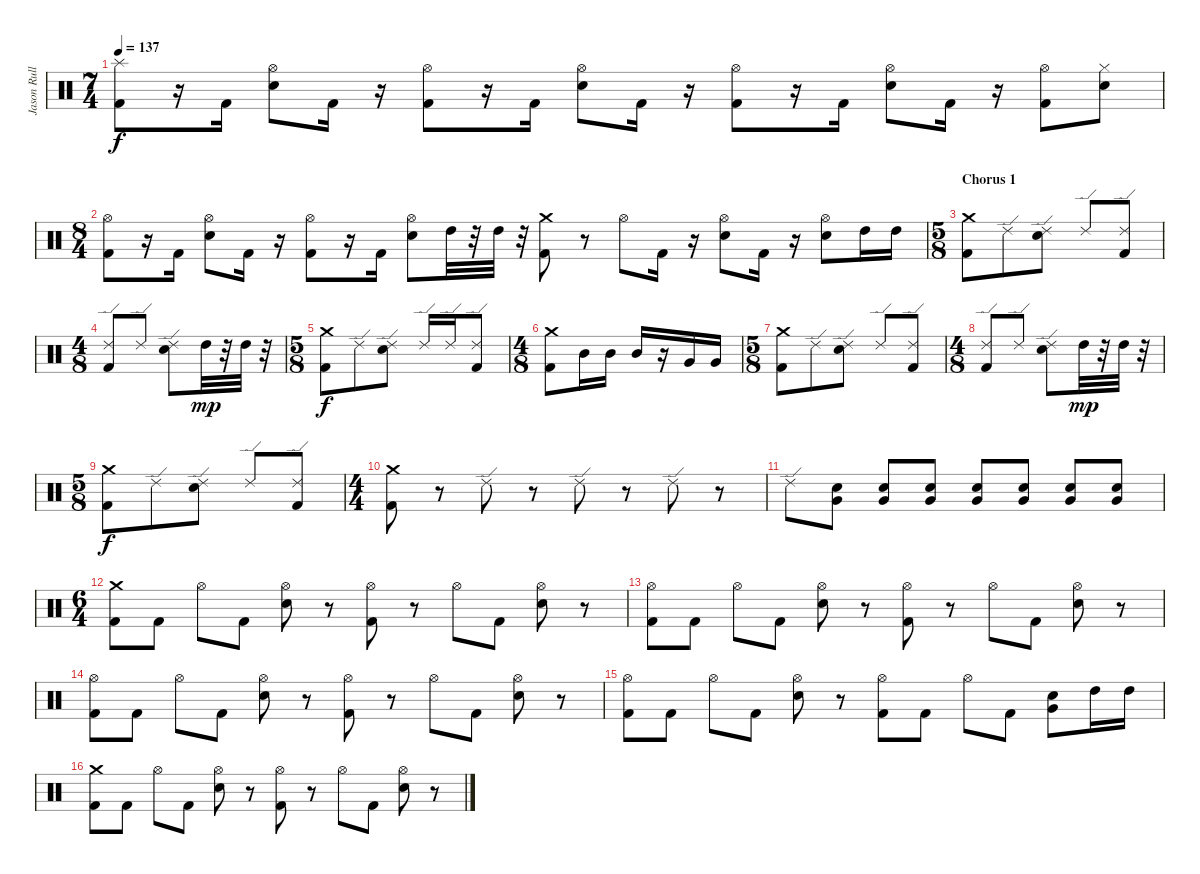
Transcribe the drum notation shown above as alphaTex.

\track ("Jason Rullo" "Jason Rull") {instrument percussion}
\staff {score}
\articulation defaults
\ts (7 4)
\tempo 137
\clef neutral
\ks c
("Splash (hit)" "Kick (hit) 2").8{dy f} r.16 "Kick (hit) 2".16 ("Hi-Hat (open)" "Electric Snare (hit)").8 "Kick (hit) 2".16 r.16 ("Hi-Hat (open)" "Kick (hit) 2").8 r.16 "Kick (hit) 2".16 ("Hi-Hat (open)" "Electric Snare (hit)").8 "Kick (hit) 2".16 r.16 ("Hi-Hat (open)" "Kick (hit) 2").8 r.16 "Kick (hit) 2".16 ("Hi-Hat (open)" "Electric Snare (hit)").8 "Kick (hit) 2".16 r.16 ("Hi-Hat (open)" "Kick (hit) 2").8 ("Hi-Hat (closed)" "Electric Snare (hit)").8 |
\ts (8 4)
("Hi-Hat (open)" "Kick (hit) 2").8 r.16 "Kick (hit) 2".16 ("Hi-Hat (open)" "Electric Snare (hit)").8 "Kick (hit) 2".16 r.16 ("Hi-Hat (open)" "Kick (hit) 2").8 r.16 "Kick (hit) 2".16 ("Hi-Hat (open)" "Electric Snare (hit)").8 "High Tom (hit)".32 r.32 "High Tom (hit)".32 r.32 ("Crash medium (hit)" "Kick (hit) 2").8 r.8 "Hi-Hat (open)".8 "Kick (hit) 2".16 r.16 ("Hi-Hat (open)" "Electric Snare (hit)").8 "Kick (hit) 2".16 r.16 ("Hi-Hat (open)" "Electric Snare (hit)").8 "High Tom (hit)".16 "High Tom (hit)".16 |
\ts (5 8)
\section ("" "Chorus 1")
("Crash medium (hit)" "Kick (hit) 2").8 "Ride (edge) 2".8 ("Ride (edge) 2" "Electric Snare (hit)").8 "Ride (edge) 2".8 ("Ride (edge) 2" "Kick (hit) 2").8 |
\ts (4 8)
("Ride (edge) 2" "Kick (hit) 2").8 "Ride (edge) 2".8 ("Ride (edge) 2" "Electric Snare (hit)").8 "High Tom (hit)".32{dy mp} r.32 "High Tom (hit)".32 r.32 |
\ts (5 8)
("Crash medium (hit)" "Kick (hit) 2").8{dy f} "Ride (edge) 2".8 ("Ride (edge) 2" "Electric Snare (hit)").8 "Ride (edge) 2".16 "Ride (edge) 2".16 ("Ride (edge) 2" "Kick (hit) 2").8 |
\ts (4 8)
("Crash medium (hit)" "Kick (hit) 2").8 "Mid Tom (hit)".16 "Mid Tom (hit)".16 "Mid Tom (hit)".16 r.16 "Very Low Tom (hit)".16 "Very Low Tom (hit)".16 |
\ts (5 8)
("Crash medium (hit)" "Kick (hit) 2").8 "Ride (edge) 2".8 ("Ride (edge) 2" "Electric Snare (hit)").8 "Ride (edge) 2".8 ("Ride (edge) 2" "Kick (hit) 2").8 |
\ts (4 8)
("Ride (edge) 2" "Kick (hit) 2").8 "Ride (edge) 2".8 ("Ride (edge) 2" "Electric Snare (hit)").8 "High Tom (hit)".32{dy mp} r.32 "High Tom (hit)".32 r.32 |
\ts (5 8)
("Crash medium (hit)" "Kick (hit) 2").8{dy f} "Ride (edge) 2".8 ("Ride (edge) 2" "Electric Snare (hit)").8 "Ride (edge) 2".8 ("Ride (edge) 2" "Kick (hit) 2").8 |
\ts (4 4)
("Crash medium (hit)" "Kick (hit) 2").8 r.8 "Ride (edge) 2".8 r.8 "Ride (edge) 2".8 r.8 "Ride (edge) 2".8 r.8 |
"Ride (edge) 2".8 ("Very Low Tom (hit)" "Electric Snare (hit)").8{volume 5} ("Very Low Tom (hit)" "Electric Snare (hit)").8{volume 7} ("Very Low Tom (hit)" "Electric Snare (hit)").8{volume 8} ("Very Low Tom (hit)" "Electric Snare (hit)").8{volume 10} ("Very Low Tom (hit)" "Electric Snare (hit)").8{volume 12} ("Very Low Tom (hit)" "Electric Snare (hit)").8{volume 14} ("Very Low Tom (hit)" "Electric Snare (hit)").8{volume 16} |
\ts (6 4)
("Crash medium (hit)" "Kick (hit) 2").8 "Kick (hit) 2".8 "Hi-Hat (open)".8 "Kick (hit) 2".8 ("Hi-Hat (open)" "Electric Snare (hit)").8 r.8 ("Hi-Hat (open)" "Kick (hit) 2").8 r.8 "Hi-Hat (open)".8 "Kick (hit) 2".8 ("Hi-Hat (open)" "Electric Snare (hit)").8 r.8 |
("Hi-Hat (open)" "Kick (hit) 2").8 "Kick (hit) 2".8 "Hi-Hat (open)".8 "Kick (hit) 2".8 ("Hi-Hat (open)" "Electric Snare (hit)").8 r.8 ("Hi-Hat (open)" "Kick (hit) 2").8 r.8 "Hi-Hat (open)".8 "Kick (hit) 2".8 ("Hi-Hat (open)" "Electric Snare (hit)").8 r.8 |
("Hi-Hat (open)" "Kick (hit) 2").8 "Kick (hit) 2".8 "Hi-Hat (open)".8 "Kick (hit) 2".8 ("Hi-Hat (open)" "Electric Snare (hit)").8 r.8 ("Hi-Hat (open)" "Kick (hit) 2").8 r.8 "Hi-Hat (open)".8 "Kick (hit) 2".8 ("Hi-Hat (open)" "Electric Snare (hit)").8 r.8 |
("Hi-Hat (open)" "Kick (hit) 2").8 "Kick (hit) 2".8 "Hi-Hat (open)".8 "Kick (hit) 2".8 ("Hi-Hat (open)" "Electric Snare (hit)").8 r.8 ("Hi-Hat (open)" "Kick (hit) 2").8 "Kick (hit) 2".8 "Hi-Hat (open)".8 "Kick (hit) 2".8 ("Very Low Tom (hit)" "Electric Snare (hit)").8 "High Tom (hit)".16 "High Tom (hit)".16 |
("Crash medium (hit)" "Kick (hit) 2").8 "Kick (hit) 2".8 "Hi-Hat (open)".8 "Kick (hit) 2".8 ("Hi-Hat (open)" "Electric Snare (hit)").8 r.8 ("Hi-Hat (open)" "Kick (hit) 2").8 r.8 "Hi-Hat (open)".8 "Kick (hit) 2".8 ("Hi-Hat (open)" "Electric Snare (hit)").8 r.8
